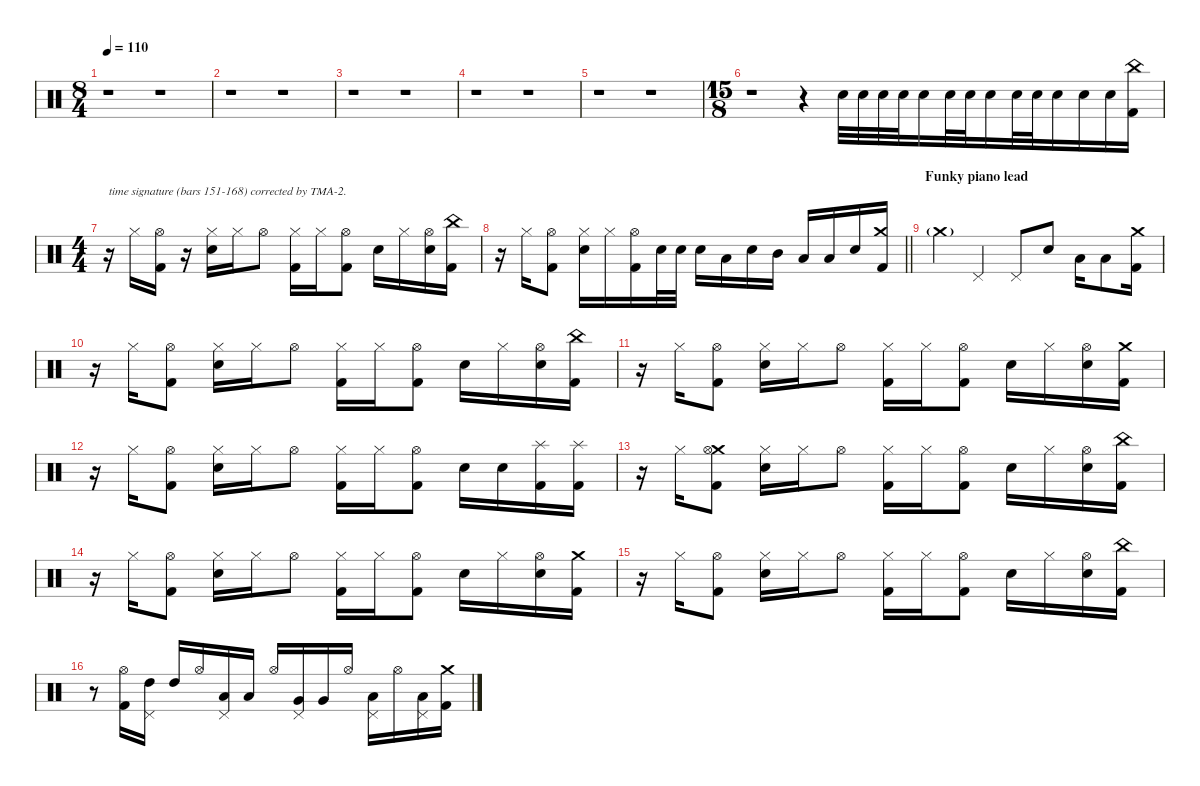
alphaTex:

\defaultSystemsLayout 4
\hideDynamics
\bracketExtendMode nobrackets
\singleTrackTrackNamePolicy hidden
\multiTrackTrackNamePolicy hidden
\firstSystemTrackNameMode fullname
\firstSystemTrackNameOrientation horizontal
\otherSystemsTrackNameOrientation horizontal
\track ("Drums" "drm.") {instrument percussion}
\staff {score}
\articulation defaults
\ts (8 4)
\tempo 110
\clef neutral
\ks c
r.1{dy f beam Down} r.1{beam Down} |
r.1{beam Down} r.1{beam Down} |
r.1{beam Down} r.1{beam Down} |
r.1{beam Down} r.1{beam Down} |
r.1{beam Down} r.1{beam Down} |
\ts (15 8)
\beaming (8 15)
r.1{beam Down} r.4{beam Down} "Snare (hit) 2".32{dy ppp beam Down} "Snare (hit) 2".32{dy pp beam Down} "Snare (hit) 2".32{dy p beam Down} "Snare (hit) 2".32{beam Down} "Snare (hit) 2".16{dy fff beam Down} "Snare (hit) 2".32{dy pp beam Down} "Snare (hit) 2".32{dy p beam Down} "Snare (hit) 2".16{dy fff beam Down} "Snare (hit) 2".32{dy pp beam Down} "Snare (hit) 2".32{dy p beam Down} "Snare (hit) 2".16{dy fff beam Down} "Snare (hit) 2".16{beam Down} "Snare (hit) 2".16{beam Down} ("China (hit)" "Kick (hit) 2").16{dy f beam Down} |
\ts (4 4)
\beaming (8 2 2 2 2)
r.16{txt "time signature (bars 151-168) corrected by TMA-2. " beam Down} "Hi-Hat (closed)".16{beam Down} ("Hi-Hat (open)" "Kick (hit) 2").16{beam Down} r.16{beam Down} ("Hi-Hat (closed)" "Snare (hit) 2").16{beam Down} "Hi-Hat (closed)".16{beam Down} "Hi-Hat (open)".8{beam Down} ("Hi-Hat (closed)" "Kick (hit) 2").16{beam Down} "Hi-Hat (closed)".16{beam Down} ("Hi-Hat (open)" "Kick (hit) 2").8{beam Down} "Snare (hit) 2".16{beam Down} "Hi-Hat (closed)".16{beam Down} ("Hi-Hat (open)" "Snare (hit) 2").16{beam Down} ("China (hit)" "Kick (hit) 2").16{beam Down} |
\barLineRight lightlight
r.16{beam Down} "Hi-Hat (closed)".16{beam Down} ("Hi-Hat (open)" "Kick (hit) 2").8{beam Down} ("Hi-Hat (closed)" "Snare (hit) 2").16{beam Down} "Hi-Hat (closed)".16{beam Down} ("Hi-Hat (open)" "Kick (hit) 2").16{beam Down} "Snare (hit) 2".32{beam Down} "Snare (hit) 2".32{beam Down} "Snare (hit) 2".16{beam Down} "Low Tom (hit)".16{beam Down} "Snare (hit) 2".16{beam Down} "Mid Tom (hit)".16{beam Down} "Low Tom (hit)".16{beam Up} "Low Tom (hit)".16{beam Up} "Snare (hit) 2".16{beam Up} ("Crash medium (hit)" "Kick (hit) 2").16{beam Up} |
\section ("" "Funky piano lead")
"Crash medium (hit)"{g}.4{dy pp beam Down} "Pedal Hi-Hat (hit)".4{dy p beam Up} "Pedal Hi-Hat (hit)".8{beam Up} "Snare (hit) 2".8{dy f beam Up} "Low Tom (hit)".16{beam Down} "Low Tom (hit)".8{beam Down} ("Crash medium (hit)" "Kick (hit) 2").16{beam Down} |
r.16{beam Down} "Hi-Hat (closed)".16{beam Down} ("Hi-Hat (open)" "Kick (hit) 2").8{beam Down} ("Hi-Hat (closed)" "Snare (hit) 2").16{beam Down} "Hi-Hat (closed)".16{beam Down} "Hi-Hat (open)".8{beam Down} ("Hi-Hat (closed)" "Kick (hit) 2").16{beam Down} "Hi-Hat (closed)".16{beam Down} ("Hi-Hat (open)" "Kick (hit) 2").8{beam Down} "Snare (hit) 2".16{beam Down} "Hi-Hat (closed)".16{beam Down} ("Hi-Hat (open)" "Snare (hit) 2").16{beam Down} ("China (hit)" "Kick (hit) 2").16{beam Down} |
r.16{beam Down} "Hi-Hat (closed)".16{beam Down} ("Hi-Hat (open)" "Kick (hit) 2").8{beam Down} ("Hi-Hat (closed)" "Snare (hit) 2").16{beam Down} "Hi-Hat (closed)".16{beam Down} "Hi-Hat (open)".8{beam Down} ("Hi-Hat (closed)" "Kick (hit) 2").16{beam Down} "Hi-Hat (closed)".16{beam Down} ("Hi-Hat (open)" "Kick (hit) 2").8{beam Down} "Snare (hit) 2".16{beam Down} "Hi-Hat (closed)".16{beam Down} ("Hi-Hat (open)" "Snare (hit) 2").16{beam Down} ("Crash medium (hit)" "Kick (hit) 2").16{beam Down} |
r.16{beam Down} "Hi-Hat (closed)".16{beam Down} ("Hi-Hat (open)" "Kick (hit) 2").8{beam Down} ("Hi-Hat (closed)" "Snare (hit) 2").16{beam Down} "Hi-Hat (closed)".16{beam Down} "Hi-Hat (open)".8{beam Down} ("Hi-Hat (closed)" "Kick (hit) 2").16{beam Down} "Hi-Hat (closed)".16{beam Down} ("Hi-Hat (open)" "Kick (hit) 2").8{beam Down} "Snare (hit) 2".16{beam Down} "Snare (hit) 2".16{beam Down} ("Splash (hit)" "Kick (hit) 2").16{beam Down} ("Splash (hit)" "Kick (hit) 2").16{beam Down} |
r.16{beam Down} "Hi-Hat (closed)".16{beam Down} ("Crash medium (hit)" "Hi-Hat (open)" "Kick (hit) 2").8{beam Down} ("Hi-Hat (closed)" "Snare (hit) 2").16{beam Down} "Hi-Hat (closed)".16{beam Down} "Hi-Hat (open)".8{beam Down} ("Hi-Hat (closed)" "Kick (hit) 2").16{beam Down} "Hi-Hat (closed)".16{beam Down} ("Hi-Hat (open)" "Kick (hit) 2").8{beam Down} "Snare (hit) 2".16{beam Down} "Hi-Hat (closed)".16{beam Down} ("Hi-Hat (open)" "Snare (hit) 2").16{beam Down} ("China (hit)" "Kick (hit) 2").16{beam Down} |
r.16{beam Down} "Hi-Hat (closed)".16{beam Down} ("Hi-Hat (open)" "Kick (hit) 2").8{beam Down} ("Hi-Hat (closed)" "Snare (hit) 2").16{beam Down} "Hi-Hat (closed)".16{beam Down} "Hi-Hat (open)".8{beam Down} ("Hi-Hat (closed)" "Kick (hit) 2").16{beam Down} "Hi-Hat (closed)".16{beam Down} ("Hi-Hat (open)" "Kick (hit) 2").8{beam Down} "Snare (hit) 2".16{beam Down} "Hi-Hat (closed)".16{beam Down} ("Hi-Hat (open)" "Snare (hit) 2").16{beam Down} ("Crash medium (hit)" "Kick (hit) 2").16{beam Down} |
r.16{beam Down} "Hi-Hat (closed)".16{beam Down} ("Hi-Hat (open)" "Kick (hit) 2").8{beam Down} ("Hi-Hat (closed)" "Snare (hit) 2").16{beam Down} "Hi-Hat (closed)".16{beam Down} "Hi-Hat (open)".8{beam Down} ("Hi-Hat (closed)" "Kick (hit) 2").16{beam Down} "Hi-Hat (closed)".16{beam Down} ("Hi-Hat (open)" "Kick (hit) 2").8{beam Down} "Snare (hit) 2".16{beam Down} "Hi-Hat (closed)".16{beam Down} ("Hi-Hat (open)" "Snare (hit) 2").16{beam Down} ("China (hit)" "Kick (hit) 2").16{beam Down} |
r.8{beam Down} ("Hi-Hat (open)" "Kick (hit) 2").16{beam Down} ("Pedal Hi-Hat (hit)" "High Tom (hit)").16{beam Down} "High Tom (hit)".16{beam Up} "Hi-Hat (open)".16{beam Up} ("Pedal Hi-Hat (hit)" "Low Tom (hit)").16{beam Up} "Low Tom (hit)".16{beam Up} "Hi-Hat (open)".16{beam Up} ("Pedal Hi-Hat (hit)" "Very Low Tom (hit)").16{beam Up} "Very Low Tom (hit)".16{beam Up} "Hi-Hat (open)".16{beam Up} ("Pedal Hi-Hat (hit)" "Low Floor Tom (hit)").16{beam Down} "Hi-Hat (open)".16{beam Down} ("Pedal Hi-Hat (hit)" "Low Floor Tom (hit)").16{beam Down} ("Crash medium (hit)" "Kick (hit) 2").16{beam Down}
